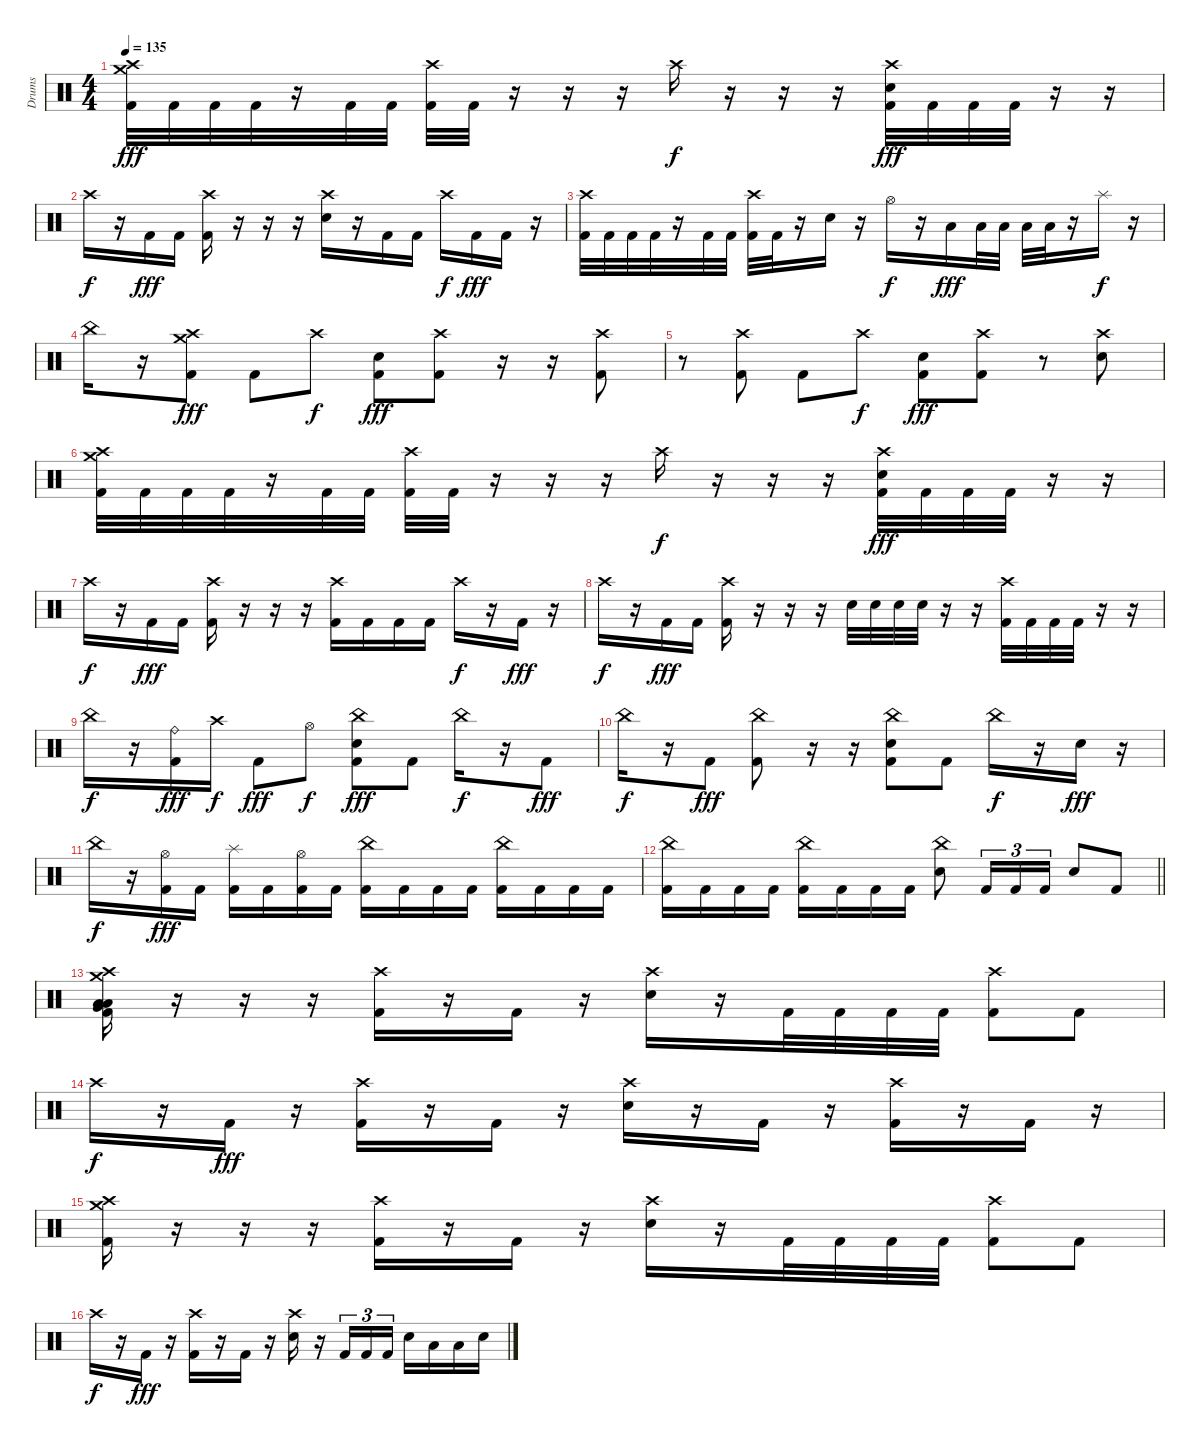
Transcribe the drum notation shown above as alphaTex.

\track ("Drums" "Drums") {instrument percussion}
\staff {score}
\articulation defaults
\ts (4 4)
\section ("" "")
\tempo 135
\clef neutral
\ks c
("Crash high (hit)" "Crash medium (hit)" "Kick (hit) 2").32{dy fff volume 13} "Kick (hit) 2".32 "Kick (hit) 2".32 "Kick (hit) 2".32 r.16 "Kick (hit) 2".32 "Kick (hit) 2".32 ("Crash high (hit)" "Kick (hit) 2").32 "Kick (hit) 2".32 r.16 r.16 r.16 "Crash high (hit)".16{dy f} r.16 r.16 r.16 ("Crash high (hit)" "Electric Snare (hit)" "Kick (hit) 2").32{dy fff} "Kick (hit) 2".32 "Kick (hit) 2".32 "Kick (hit) 2".32 r.16 r.16 |
"Crash high (hit)".16{dy f} r.16 "Kick (hit) 2".16{dy fff} "Kick (hit) 2".16 ("Crash high (hit)" "Kick (hit) 2").16 r.16 r.16 r.16 ("Crash high (hit)" "Electric Snare (hit)").16 r.16 "Kick (hit) 2".16 "Kick (hit) 2".16 "Crash high (hit)".16{dy f} "Kick (hit) 2".16{dy fff} "Kick (hit) 2".16 r.16 |
("Crash high (hit)" "Kick (hit) 2").32 "Kick (hit) 2".32 "Kick (hit) 2".32 "Kick (hit) 2".32 r.16 "Kick (hit) 2".32 "Kick (hit) 2".32 ("Crash high (hit)" "Kick (hit) 2").32 "Kick (hit) 2".32 r.16 "Electric Snare (hit)".16 r.16 "Hi-Hat (open)".16{dy f} r.16 "Low Tom (hit)".16{dy fff} "Low Tom (hit)".32 "Low Tom (hit)".32 "Low Tom (hit)".32 "Low Floor Tom (hit)".32 r.16 "Splash (hit)".16{dy f} r.16 |
"China (hit)".16 r.16 ("Crash high (hit)" "Crash medium (hit)" "Kick (hit) 2").8{dy fff} "Kick (hit) 2".8 "Crash high (hit)".8{dy f} ("Electric Snare (hit)" "Kick (hit) 2").8{dy fff} ("Crash high (hit)" "Kick (hit) 2").8 r.16 r.16 ("Crash high (hit)" "Kick (hit) 2").8 |
r.8 ("Crash high (hit)" "Kick (hit) 2").8 "Kick (hit) 2".8 "Crash high (hit)".8{dy f} ("Electric Snare (hit)" "Kick (hit) 2").8{dy fff} ("Crash high (hit)" "Kick (hit) 2").8 r.8 ("Crash high (hit)" "Electric Snare (hit)").8 |
("Crash high (hit)" "Crash medium (hit)" "Kick (hit) 2").32 "Kick (hit) 2".32 "Kick (hit) 2".32 "Kick (hit) 2".32 r.16 "Kick (hit) 2".32 "Kick (hit) 2".32 ("Crash high (hit)" "Kick (hit) 2").32 "Kick (hit) 2".32 r.16 r.16 r.16 "Crash high (hit)".16{dy f} r.16 r.16 r.16 ("Crash high (hit)" "Electric Snare (hit)" "Kick (hit) 2").32{dy fff} "Kick (hit) 2".32 "Kick (hit) 2".32 "Kick (hit) 2".32 r.16 r.16 |
"Crash high (hit)".16{dy f} r.16 "Kick (hit) 2".16{dy fff} "Kick (hit) 2".16 ("Crash high (hit)" "Kick (hit) 2").16 r.16 r.16 r.16 ("Crash high (hit)" "Kick (hit) 2").16 "Kick (hit) 2".16 "Kick (hit) 2".16 "Kick (hit) 2".16 "Crash high (hit)".16{dy f} r.16 "Kick (hit) 2".16{dy fff} r.16 |
"Crash high (hit)".16{dy f} r.16 "Kick (hit) 2".16{dy fff} "Kick (hit) 2".16 ("Crash high (hit)" "Kick (hit) 2").16 r.16 r.16 r.16 "Electric Snare (hit)".32 "Electric Snare (hit)".32 "Electric Snare (hit)".32 "Electric Snare (hit)".32 r.16 r.16 ("Crash high (hit)" "Kick (hit) 2").32 "Kick (hit) 2".32 "Kick (hit) 2".32 "Kick (hit) 2".32 r.16{volume 0} r.16 |
"China (hit)".16{dy f volume 13 balance 8} r.16 ("Ride (bell)" "Kick (hit) 2").16{dy fff} "Crash high (hit)".16{dy f} "Kick (hit) 2".8{dy fff} "Hi-Hat (open)".8{dy f} ("China (hit)" "Electric Snare (hit)" "Kick (hit) 2").8{dy fff} "Kick (hit) 2".8 "China (hit)".16{dy f} r.16 "Kick (hit) 2".8{dy fff} |
"China (hit)".16{dy f} r.16 "Kick (hit) 2".8{dy fff} ("China (hit)" "Kick (hit) 2").8 r.16 r.16 ("China (hit)" "Electric Snare (hit)" "Kick (hit) 2").8 "Kick (hit) 2".8 "China (hit)".16{dy f} r.16 "Electric Snare (hit)".16{dy fff} r.16 |
"China (hit)".16{dy f} r.16 ("Hi-Hat (open)" "Kick (hit) 2").16{dy fff} "Kick (hit) 2".16 ("Splash (hit)" "Kick (hit) 2").16 "Kick (hit) 2".16 ("Hi-Hat (open)" "Kick (hit) 2").16 "Kick (hit) 2".16 ("China (hit)" "Kick (hit) 2").16 "Kick (hit) 2".16 "Kick (hit) 2".16 "Kick (hit) 2".16 ("China (hit)" "Kick (hit) 2").16 "Kick (hit) 2".16 "Kick (hit) 2".16 "Kick (hit) 2".16 |
\barLineRight lightlight
("China (hit)" "Kick (hit) 2").16 "Kick (hit) 2".16 "Kick (hit) 2".16 "Kick (hit) 2".16 ("China (hit)" "Kick (hit) 2").16 "Kick (hit) 2".16 "Kick (hit) 2".16 "Kick (hit) 2".16 ("China (hit)" "Electric Snare (hit)").8 "Kick (hit) 2".16{tu (3 2)} "Kick (hit) 2".16{tu (3 2)} "Kick (hit) 2".16{tu (3 2)} "Electric Snare (hit)".8 "Kick (hit) 2".8 |
\section ("" "")
("Crash high (hit)" "Crash medium (hit)" "Low Floor Tom (hit)" "Very Low Tom (hit)" "Low Tom (hit)" "Kick (hit) 2").16{volume 16} r.16 r.16 r.16 ("Crash high (hit)" "Kick (hit) 2").16{volume 13} r.16 "Kick (hit) 2".16 r.16 ("Crash high (hit)" "Electric Snare (hit)").16 r.16 "Kick (hit) 2".32 "Kick (hit) 2".32 "Kick (hit) 2".32 "Kick (hit) 2".32 ("Crash high (hit)" "Kick (hit) 2").8 "Kick (hit) 2".8 |
"Crash high (hit)".16{dy f} r.16 "Kick (hit) 2".16{dy fff} r.16 ("Crash high (hit)" "Kick (hit) 2").16 r.16 "Kick (hit) 2".16 r.16 ("Crash high (hit)" "Electric Snare (hit)").16 r.16 "Kick (hit) 2".16 r.16 ("Crash high (hit)" "Kick (hit) 2").16 r.16 "Kick (hit) 2".16 r.16 |
("Crash high (hit)" "Crash medium (hit)" "Kick (hit) 2").16 r.16 r.16 r.16 ("Crash high (hit)" "Kick (hit) 2").16 r.16 "Kick (hit) 2".16 r.16 ("Crash high (hit)" "Electric Snare (hit)").16 r.16 "Kick (hit) 2".32 "Kick (hit) 2".32 "Kick (hit) 2".32 "Kick (hit) 2".32 ("Crash high (hit)" "Kick (hit) 2").8 "Kick (hit) 2".8 |
"Crash high (hit)".16{dy f} r.16 "Kick (hit) 2".16{dy fff} r.16 ("Crash high (hit)" "Kick (hit) 2").16 r.16 "Kick (hit) 2".16 r.16 ("Crash high (hit)" "Electric Snare (hit)").16 r.16 "Kick (hit) 2".16{tu (3 2)} "Kick (hit) 2".16{tu (3 2)} "Kick (hit) 2".16{tu (3 2)} "Electric Snare (hit)".16 "Low Tom (hit)".16 "Low Floor Tom (hit)".16 "Electric Snare (hit)".16
